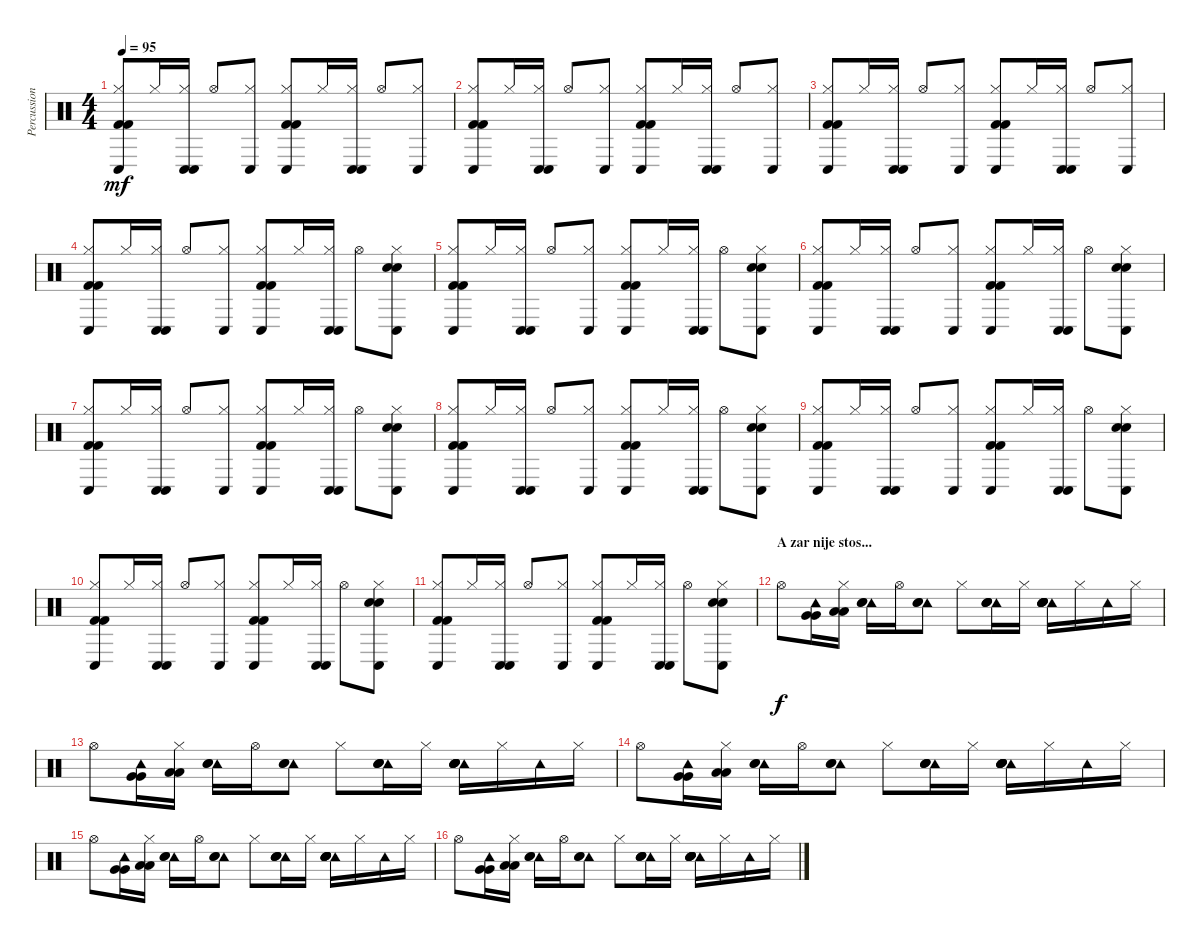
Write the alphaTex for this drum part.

\track ("Percussion" "Percussion") {instrument percussion}
\staff {score}
\articulation defaults
\ts (4 4)
\tempo 95
\clef neutral
\ks c
("Hi-Hat (closed)" "Conga low (hit)" "Kick (hit) 2" "Kick (hit) 2").8{dy mf} "Hi-Hat (closed)".16 ("Hi-Hat (closed)" "Conga low (hit)" "Conga low (hit)").16 "Hi-Hat (open)".8 ("Hi-Hat (closed)" "Conga low (hit)").8 ("Hi-Hat (closed)" "Conga low (hit)" "Kick (hit) 2" "Kick (hit) 2").8 "Hi-Hat (closed)".16 ("Hi-Hat (closed)" "Conga low (hit)" "Conga low (hit)").16 "Hi-Hat (open)".8 ("Hi-Hat (closed)" "Conga low (hit)").8 |
("Hi-Hat (closed)" "Conga low (hit)" "Kick (hit) 2" "Kick (hit) 2").8 "Hi-Hat (closed)".16 ("Hi-Hat (closed)" "Conga low (hit)" "Conga low (hit)").16 "Hi-Hat (open)".8 ("Hi-Hat (closed)" "Conga low (hit)").8 ("Hi-Hat (closed)" "Conga low (hit)" "Kick (hit) 2" "Kick (hit) 2").8 "Hi-Hat (closed)".16 ("Hi-Hat (closed)" "Conga low (hit)" "Conga low (hit)").16 "Hi-Hat (open)".8 ("Hi-Hat (closed)" "Conga low (hit)").8 |
("Hi-Hat (closed)" "Conga low (hit)" "Kick (hit) 2" "Kick (hit) 2").8 "Hi-Hat (closed)".16 ("Hi-Hat (closed)" "Conga low (hit)" "Conga low (hit)").16 "Hi-Hat (open)".8 ("Hi-Hat (closed)" "Conga low (hit)").8 ("Hi-Hat (closed)" "Conga low (hit)" "Kick (hit) 2" "Kick (hit) 2").8 "Hi-Hat (closed)".16 ("Hi-Hat (closed)" "Conga low (hit)" "Conga low (hit)").16 "Hi-Hat (open)".8 ("Hi-Hat (closed)" "Conga low (hit)").8 |
("Hi-Hat (closed)" "Conga low (hit)" "Kick (hit) 2" "Kick (hit) 2").8 "Hi-Hat (closed)".16 ("Hi-Hat (closed)" "Conga low (hit)" "Conga low (hit)").16 "Hi-Hat (open)".8 ("Hi-Hat (closed)" "Conga low (hit)").8 ("Hi-Hat (closed)" "Conga low (hit)" "Kick (hit) 2" "Kick (hit) 2").8 "Hi-Hat (closed)".16 ("Hi-Hat (closed)" "Conga low (hit)" "Conga low (hit)").16 "Hi-Hat (open)".8 ("Hi-Hat (closed)" "Conga low (hit)" "Snare (hit) 2" "Snare (hit) 2").8 |
("Hi-Hat (closed)" "Conga low (hit)" "Kick (hit) 2" "Kick (hit) 2").8 "Hi-Hat (closed)".16 ("Hi-Hat (closed)" "Conga low (hit)" "Conga low (hit)").16 "Hi-Hat (open)".8 ("Hi-Hat (closed)" "Conga low (hit)").8 ("Hi-Hat (closed)" "Conga low (hit)" "Kick (hit) 2" "Kick (hit) 2").8 "Hi-Hat (closed)".16 ("Hi-Hat (closed)" "Conga low (hit)" "Conga low (hit)").16 "Hi-Hat (open)".8 ("Hi-Hat (closed)" "Conga low (hit)" "Snare (hit) 2" "Snare (hit) 2").8 |
("Hi-Hat (closed)" "Conga low (hit)" "Kick (hit) 2" "Kick (hit) 2").8 "Hi-Hat (closed)".16 ("Hi-Hat (closed)" "Conga low (hit)" "Conga low (hit)").16 "Hi-Hat (open)".8 ("Hi-Hat (closed)" "Conga low (hit)").8 ("Hi-Hat (closed)" "Conga low (hit)" "Kick (hit) 2" "Kick (hit) 2").8 "Hi-Hat (closed)".16 ("Hi-Hat (closed)" "Conga low (hit)" "Conga low (hit)").16 "Hi-Hat (open)".8 ("Hi-Hat (closed)" "Conga low (hit)" "Snare (hit) 2" "Snare (hit) 2").8 |
("Hi-Hat (closed)" "Conga low (hit)" "Kick (hit) 2" "Kick (hit) 2").8 "Hi-Hat (closed)".16 ("Hi-Hat (closed)" "Conga low (hit)" "Conga low (hit)").16 "Hi-Hat (open)".8 ("Hi-Hat (closed)" "Conga low (hit)").8 ("Hi-Hat (closed)" "Conga low (hit)" "Kick (hit) 2" "Kick (hit) 2").8 "Hi-Hat (closed)".16 ("Hi-Hat (closed)" "Conga low (hit)" "Conga low (hit)").16 "Hi-Hat (open)".8 ("Hi-Hat (closed)" "Conga low (hit)" "Snare (hit) 2" "Snare (hit) 2").8 |
("Hi-Hat (closed)" "Conga low (hit)" "Kick (hit) 2" "Kick (hit) 2").8 "Hi-Hat (closed)".16 ("Hi-Hat (closed)" "Conga low (hit)" "Conga low (hit)").16 "Hi-Hat (open)".8 ("Hi-Hat (closed)" "Conga low (hit)").8 ("Hi-Hat (closed)" "Conga low (hit)" "Kick (hit) 2" "Kick (hit) 2").8 "Hi-Hat (closed)".16 ("Hi-Hat (closed)" "Conga low (hit)" "Conga low (hit)").16 "Hi-Hat (open)".8 ("Hi-Hat (closed)" "Conga low (hit)" "Snare (hit) 2" "Snare (hit) 2").8 |
("Hi-Hat (closed)" "Conga low (hit)" "Kick (hit) 2" "Kick (hit) 2").8 "Hi-Hat (closed)".16 ("Hi-Hat (closed)" "Conga low (hit)" "Conga low (hit)").16 "Hi-Hat (open)".8 ("Hi-Hat (closed)" "Conga low (hit)").8 ("Hi-Hat (closed)" "Conga low (hit)" "Kick (hit) 2" "Kick (hit) 2").8 "Hi-Hat (closed)".16 ("Hi-Hat (closed)" "Conga low (hit)" "Conga low (hit)").16 "Hi-Hat (open)".8 ("Hi-Hat (closed)" "Conga low (hit)" "Snare (hit) 2" "Snare (hit) 2").8 |
("Hi-Hat (closed)" "Conga low (hit)" "Kick (hit) 2" "Kick (hit) 2").8 "Hi-Hat (closed)".16 ("Hi-Hat (closed)" "Conga low (hit)" "Conga low (hit)").16 "Hi-Hat (open)".8 ("Hi-Hat (closed)" "Conga low (hit)").8 ("Hi-Hat (closed)" "Conga low (hit)" "Kick (hit) 2" "Kick (hit) 2").8 "Hi-Hat (closed)".16 ("Hi-Hat (closed)" "Conga low (hit)" "Conga low (hit)").16 "Hi-Hat (open)".8 ("Hi-Hat (closed)" "Conga low (hit)" "Snare (hit) 2" "Snare (hit) 2").8 |
("Hi-Hat (closed)" "Conga low (hit)" "Kick (hit) 2" "Kick (hit) 2").8 "Hi-Hat (closed)".16 ("Hi-Hat (closed)" "Conga low (hit)" "Conga low (hit)").16 "Hi-Hat (open)".8 ("Hi-Hat (closed)" "Conga low (hit)").8 ("Hi-Hat (closed)" "Conga low (hit)" "Kick (hit) 2" "Kick (hit) 2").8 "Hi-Hat (closed)".16 ("Hi-Hat (closed)" "Conga low (hit)" "Conga low (hit)").16 "Hi-Hat (open)".8 ("Hi-Hat (closed)" "Conga low (hit)" "Snare (hit) 2" "Snare (hit) 2").8 |
\section ("" "A zar nije stos...")
"Hi-Hat (open)".8{dy f} ("Tambourine (hit)" "Very Low Tom (hit)" "Very Low Tom (hit)").16 ("Hi-Hat (closed)" "Low Floor Tom (hit)" "Low Floor Tom (hit)").16 ("Tambourine (hit)" "Electric Snare (hit)" "Electric Snare (hit)").16 "Hi-Hat (open)".16 ("Tambourine (hit)" "Snare (hit) 2" "Snare (hit) 2").8 "Hi-Hat (closed)".8 ("Tambourine (hit)" "Hand Clap (hit)" "Hand Clap (hit)" "Hand Clap (hit)").16 "Hi-Hat (closed)".16 ("Tambourine (hit)" "Snare (hit) 2" "Snare (hit) 2" "Hand Clap (hit)" "Hand Clap (hit)" "Hand Clap (hit)").16 "Hi-Hat (closed)".16 "Tambourine (hit)".16 "Hi-Hat (closed)".16 |
"Hi-Hat (open)".8 ("Tambourine (hit)" "Very Low Tom (hit)" "Very Low Tom (hit)").16 ("Hi-Hat (closed)" "Low Floor Tom (hit)" "Low Floor Tom (hit)").16 ("Tambourine (hit)" "Electric Snare (hit)" "Electric Snare (hit)").16 "Hi-Hat (open)".16 ("Tambourine (hit)" "Snare (hit) 2" "Snare (hit) 2").8 "Hi-Hat (closed)".8 ("Tambourine (hit)" "Hand Clap (hit)" "Hand Clap (hit)" "Hand Clap (hit)").16 "Hi-Hat (closed)".16 ("Tambourine (hit)" "Snare (hit) 2" "Snare (hit) 2" "Hand Clap (hit)" "Hand Clap (hit)" "Hand Clap (hit)").16 "Hi-Hat (closed)".16 "Tambourine (hit)".16 "Hi-Hat (closed)".16 |
"Hi-Hat (open)".8 ("Tambourine (hit)" "Very Low Tom (hit)" "Very Low Tom (hit)").16 ("Hi-Hat (closed)" "Low Floor Tom (hit)" "Low Floor Tom (hit)").16 ("Tambourine (hit)" "Electric Snare (hit)" "Electric Snare (hit)").16 "Hi-Hat (open)".16 ("Tambourine (hit)" "Snare (hit) 2" "Snare (hit) 2").8 "Hi-Hat (closed)".8 ("Tambourine (hit)" "Hand Clap (hit)" "Hand Clap (hit)" "Hand Clap (hit)").16 "Hi-Hat (closed)".16 ("Tambourine (hit)" "Snare (hit) 2" "Snare (hit) 2" "Hand Clap (hit)" "Hand Clap (hit)" "Hand Clap (hit)").16 "Hi-Hat (closed)".16 "Tambourine (hit)".16 "Hi-Hat (closed)".16 |
"Hi-Hat (open)".8 ("Tambourine (hit)" "Very Low Tom (hit)" "Very Low Tom (hit)").16 ("Hi-Hat (closed)" "Low Floor Tom (hit)" "Low Floor Tom (hit)").16 ("Tambourine (hit)" "Electric Snare (hit)" "Electric Snare (hit)").16 "Hi-Hat (open)".16 ("Tambourine (hit)" "Snare (hit) 2" "Snare (hit) 2").8 "Hi-Hat (closed)".8 ("Tambourine (hit)" "Hand Clap (hit)" "Hand Clap (hit)" "Hand Clap (hit)").16 "Hi-Hat (closed)".16 ("Tambourine (hit)" "Snare (hit) 2" "Snare (hit) 2" "Hand Clap (hit)" "Hand Clap (hit)" "Hand Clap (hit)").16 "Hi-Hat (closed)".16 "Tambourine (hit)".16 "Hi-Hat (closed)".16 |
"Hi-Hat (open)".8 ("Tambourine (hit)" "Very Low Tom (hit)" "Very Low Tom (hit)").16 ("Hi-Hat (closed)" "Low Floor Tom (hit)" "Low Floor Tom (hit)").16 ("Tambourine (hit)" "Electric Snare (hit)" "Electric Snare (hit)").16 "Hi-Hat (open)".16 ("Tambourine (hit)" "Snare (hit) 2" "Snare (hit) 2").8 "Hi-Hat (closed)".8 ("Tambourine (hit)" "Hand Clap (hit)" "Hand Clap (hit)" "Hand Clap (hit)").16 "Hi-Hat (closed)".16 ("Tambourine (hit)" "Snare (hit) 2" "Snare (hit) 2" "Hand Clap (hit)" "Hand Clap (hit)" "Hand Clap (hit)").16 "Hi-Hat (closed)".16 "Tambourine (hit)".16 "Hi-Hat (closed)".16
